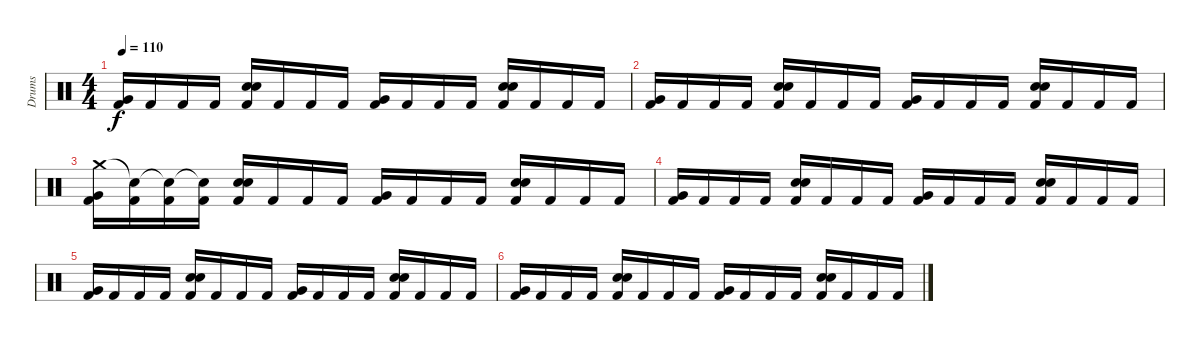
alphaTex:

\track ("Drums" "Drums") {instrument percussion}
\staff {score}
\articulation defaults
\ts (4 4)
\tempo 110
\clef neutral
\ks c
("Very Low Tom (hit)" "Kick (hit) 2").16{dy f volume 10} "Kick (hit) 2".16 "Kick (hit) 2".16 "Kick (hit) 2".16 ("Electric Snare (hit)" "Electric Snare (hit)" "Kick (hit) 2").16 "Kick (hit) 2".16 "Kick (hit) 2".16 "Kick (hit) 2".16 ("Very Low Tom (hit)" "Kick (hit) 2").16{volume 9} "Kick (hit) 2".16 "Kick (hit) 2".16 "Kick (hit) 2".16 ("Electric Snare (hit)" "Electric Snare (hit)" "Kick (hit) 2").16 "Kick (hit) 2".16 "Kick (hit) 2".16 "Kick (hit) 2".16 |
("Very Low Tom (hit)" "Kick (hit) 2").16{volume 8} "Kick (hit) 2".16 "Kick (hit) 2".16 "Kick (hit) 2".16 ("Electric Snare (hit)" "Electric Snare (hit)" "Kick (hit) 2").16 "Kick (hit) 2".16 "Kick (hit) 2".16 "Kick (hit) 2".16 ("Very Low Tom (hit)" "Kick (hit) 2").16{volume 7} "Kick (hit) 2".16 "Kick (hit) 2".16 "Kick (hit) 2".16 ("Electric Snare (hit)" "Electric Snare (hit)" "Kick (hit) 2").16 "Kick (hit) 2".16 "Kick (hit) 2".16 "Kick (hit) 2".16 |
("Crash medium (hit)" "Very Low Tom (hit)" "Kick (hit) 2").16{volume 6} ("Snare (hit)"{t} "Kick (hit) 2").16 ("Snare (hit)"{t} "Kick (hit) 2").16 ("Snare (hit)"{t} "Kick (hit) 2").16 ("Electric Snare (hit)" "Electric Snare (hit)" "Kick (hit) 2").16 "Kick (hit) 2".16 "Kick (hit) 2".16 "Kick (hit) 2".16 ("Very Low Tom (hit)" "Kick (hit) 2").16{volume 5} "Kick (hit) 2".16 "Kick (hit) 2".16 "Kick (hit) 2".16 ("Electric Snare (hit)" "Electric Snare (hit)" "Kick (hit) 2").16 "Kick (hit) 2".16 "Kick (hit) 2".16 "Kick (hit) 2".16 |
("Very Low Tom (hit)" "Kick (hit) 2").16{volume 4} "Kick (hit) 2".16 "Kick (hit) 2".16 "Kick (hit) 2".16 ("Electric Snare (hit)" "Electric Snare (hit)" "Kick (hit) 2").16 "Kick (hit) 2".16 "Kick (hit) 2".16 "Kick (hit) 2".16 ("Very Low Tom (hit)" "Kick (hit) 2").16{volume 3} "Kick (hit) 2".16 "Kick (hit) 2".16 "Kick (hit) 2".16 ("Electric Snare (hit)" "Electric Snare (hit)" "Kick (hit) 2").16 "Kick (hit) 2".16 "Kick (hit) 2".16 "Kick (hit) 2".16 |
("Very Low Tom (hit)" "Kick (hit) 2").16{volume 2} "Kick (hit) 2".16 "Kick (hit) 2".16 "Kick (hit) 2".16 ("Electric Snare (hit)" "Electric Snare (hit)" "Kick (hit) 2").16 "Kick (hit) 2".16 "Kick (hit) 2".16 "Kick (hit) 2".16 ("Very Low Tom (hit)" "Kick (hit) 2").16{volume 1} "Kick (hit) 2".16 "Kick (hit) 2".16 "Kick (hit) 2".16 ("Electric Snare (hit)" "Electric Snare (hit)" "Kick (hit) 2").16 "Kick (hit) 2".16 "Kick (hit) 2".16 "Kick (hit) 2".16 |
("Very Low Tom (hit)" "Kick (hit) 2").16{volume 0} "Kick (hit) 2".16 "Kick (hit) 2".16 "Kick (hit) 2".16 ("Electric Snare (hit)" "Electric Snare (hit)" "Kick (hit) 2").16 "Kick (hit) 2".16 "Kick (hit) 2".16 "Kick (hit) 2".16 ("Very Low Tom (hit)" "Kick (hit) 2").16 "Kick (hit) 2".16 "Kick (hit) 2".16 "Kick (hit) 2".16 ("Electric Snare (hit)" "Electric Snare (hit)" "Kick (hit) 2").16 "Kick (hit) 2".16 "Kick (hit) 2".16 "Kick (hit) 2".16
